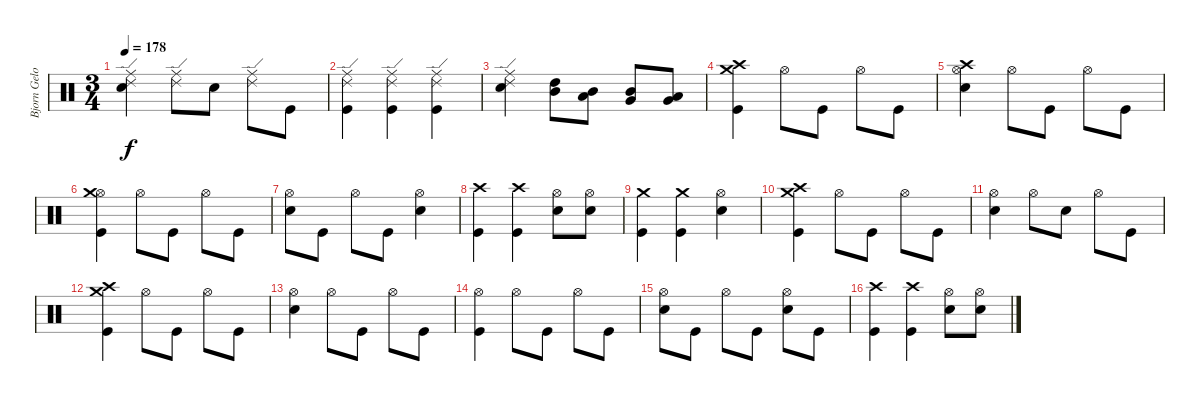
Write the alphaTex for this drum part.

\track ("Bjorn Gelotte-Drum" "Bjorn Gelo") {instrument percussion}
\staff {score}
\articulation defaults
\ts (3 4)
\tempo 178
\clef neutral
\ks c
("Electric Snare (hit)" "Ride (middle)" "Ride (edge) 2").4{dy f} ("Ride (middle)" "Ride (edge) 2").8 "Electric Snare (hit)".8 ("Ride (middle)" "Ride (edge) 2").8 "Kick (hit)".8 |
("Kick (hit)" "Ride (middle)" "Ride (edge) 2").4 ("Kick (hit)" "Ride (middle)" "Ride (edge) 2").4 ("Kick (hit)" "Ride (middle)" "Ride (edge) 2").4 |
("Electric Snare (hit)" "Ride (middle)" "Ride (edge) 2").4 ("Mid Tom (hit)" "High Tom (hit)").8 ("Low Tom (hit)" "Mid Tom (hit)").8 ("Very Low Tom (hit)" "Mid Tom (hit)").8 ("Very Low Tom (hit)" "Low Tom (hit)").8 |
("Kick (hit)" "Crash high (hit)" "Crash medium (hit)").4 "Hi-Hat (open)".8 "Kick (hit)".8 "Hi-Hat (open)".8 "Kick (hit)".8 |
("Electric Snare (hit)" "Hi-Hat (open)" "Crash high (hit)").4 "Hi-Hat (open)".8 "Kick (hit)".8 "Hi-Hat (open)".8 "Kick (hit)".8 |
("Kick (hit)" "Hi-Hat (open)" "Crash medium (hit)").4 "Hi-Hat (open)".8 "Kick (hit)".8 "Hi-Hat (open)".8 "Kick (hit)".8 |
("Electric Snare (hit)" "Hi-Hat (open)").8 "Kick (hit)".8 "Hi-Hat (open)".8 "Kick (hit)".8 ("Electric Snare (hit)" "Hi-Hat (open)").4 |
("Kick (hit)" "Crash high (hit)").4 ("Kick (hit)" "Crash high (hit)").4 ("Electric Snare (hit)" "Hi-Hat (open)").8 ("Electric Snare (hit)" "Hi-Hat (open)").8 |
("Kick (hit)" "Crash medium (hit)").4 ("Kick (hit)" "Crash medium (hit)").4 ("Electric Snare (hit)" "Hi-Hat (open)").4 |
("Kick (hit)" "Crash high (hit)" "Crash medium (hit)").4 "Hi-Hat (open)".8 "Kick (hit)".8 "Hi-Hat (open)".8 "Kick (hit)".8 |
("Electric Snare (hit)" "Hi-Hat (open)").4 "Hi-Hat (open)".8 "Electric Snare (hit)".8 "Hi-Hat (open)".8 "Kick (hit)".8 |
("Kick (hit)" "Crash high (hit)" "Crash medium (hit)").4 "Hi-Hat (open)".8 "Kick (hit)".8 "Hi-Hat (open)".8 "Kick (hit)".8 |
("Electric Snare (hit)" "Hi-Hat (open)").4 "Hi-Hat (open)".8 "Kick (hit)".8 "Hi-Hat (open)".8 "Kick (hit)".8 |
("Kick (hit)" "Hi-Hat (open)").4 "Hi-Hat (open)".8 "Kick (hit)".8 "Hi-Hat (open)".8 "Kick (hit)".8 |
("Electric Snare (hit)" "Hi-Hat (open)").8 "Kick (hit)".8 "Hi-Hat (open)".8 "Kick (hit)".8 ("Electric Snare (hit)" "Hi-Hat (open)").8 "Kick (hit)".8 |
("Kick (hit)" "Crash high (hit)").4 ("Kick (hit)" "Crash high (hit)").4 ("Electric Snare (hit)" "Hi-Hat (open)").8 ("Electric Snare (hit)" "Hi-Hat (open)").8
